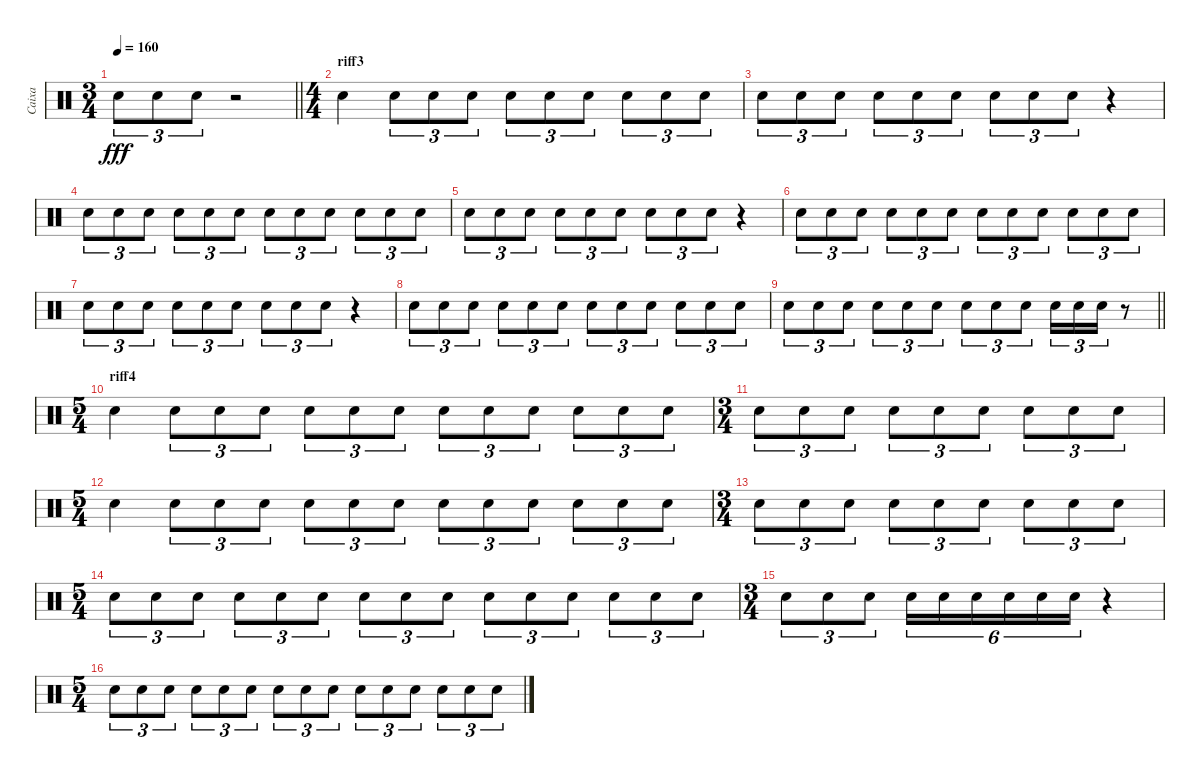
\track ("Caixa" "Caixa") {instrument percussion}
\staff {score}
\articulation defaults
\ts (3 4)
\tempo 160
\clef neutral
\barLineRight lightlight
\ks c "Electric Snare (hit)".8{tu (3 2) dy fff} "Electric Snare (hit)".8{tu (3 2)} "Electric Snare (hit)".8{tu (3 2)}
r.2 |
\ts (4 4)
\section ("" "riff3")
"Electric Snare (hit)".4 "Electric Snare (hit)".8{tu (3 2)} "Electric Snare (hit)".8{tu (3 2)} "Electric Snare (hit)".8{tu (3 2)} "Electric Snare (hit)".8{tu (3 2)} "Electric Snare (hit)".8{tu (3 2)} "Electric Snare (hit)".8{tu (3 2)} "Electric Snare (hit)".8{tu (3 2)} "Electric Snare (hit)".8{tu (3 2)} "Electric Snare (hit)".8{tu (3 2)} |
"Electric Snare (hit)".8{tu (3 2)} "Electric Snare (hit)".8{tu (3 2)} "Electric Snare (hit)".8{tu (3 2)} "Electric Snare (hit)".8{tu (3 2)} "Electric Snare (hit)".8{tu (3 2)} "Electric Snare (hit)".8{tu (3 2)} "Electric Snare (hit)".8{tu (3 2)} "Electric Snare (hit)".8{tu (3 2)} "Electric Snare (hit)".8{tu (3 2)} r.4 |
"Electric Snare (hit)".8{tu (3 2)} "Electric Snare (hit)".8{tu (3 2)} "Electric Snare (hit)".8{tu (3 2)} "Electric Snare (hit)".8{tu (3 2)} "Electric Snare (hit)".8{tu (3 2)} "Electric Snare (hit)".8{tu (3 2)} "Electric Snare (hit)".8{tu (3 2)} "Electric Snare (hit)".8{tu (3 2)} "Electric Snare (hit)".8{tu (3 2)} "Electric Snare (hit)".8{tu (3 2)} "Electric Snare (hit)".8{tu (3 2)} "Electric Snare (hit)".8{tu (3 2)} |
"Electric Snare (hit)".8{tu (3 2)} "Electric Snare (hit)".8{tu (3 2)} "Electric Snare (hit)".8{tu (3 2)} "Electric Snare (hit)".8{tu (3 2)} "Electric Snare (hit)".8{tu (3 2)} "Electric Snare (hit)".8{tu (3 2)} "Electric Snare (hit)".8{tu (3 2)} "Electric Snare (hit)".8{tu (3 2)} "Electric Snare (hit)".8{tu (3 2)} r.4 |
"Electric Snare (hit)".8{tu (3 2)} "Electric Snare (hit)".8{tu (3 2)} "Electric Snare (hit)".8{tu (3 2)} "Electric Snare (hit)".8{tu (3 2)} "Electric Snare (hit)".8{tu (3 2)} "Electric Snare (hit)".8{tu (3 2)} "Electric Snare (hit)".8{tu (3 2)} "Electric Snare (hit)".8{tu (3 2)} "Electric Snare (hit)".8{tu (3 2)} "Electric Snare (hit)".8{tu (3 2)} "Electric Snare (hit)".8{tu (3 2)} "Electric Snare (hit)".8{tu (3 2)} |
"Electric Snare (hit)".8{tu (3 2)} "Electric Snare (hit)".8{tu (3 2)} "Electric Snare (hit)".8{tu (3 2)} "Electric Snare (hit)".8{tu (3 2)} "Electric Snare (hit)".8{tu (3 2)} "Electric Snare (hit)".8{tu (3 2)} "Electric Snare (hit)".8{tu (3 2)} "Electric Snare (hit)".8{tu (3 2)} "Electric Snare (hit)".8{tu (3 2)} r.4 |
"Electric Snare (hit)".8{tu (3 2)} "Electric Snare (hit)".8{tu (3 2)} "Electric Snare (hit)".8{tu (3 2)} "Electric Snare (hit)".8{tu (3 2)} "Electric Snare (hit)".8{tu (3 2)} "Electric Snare (hit)".8{tu (3 2)} "Electric Snare (hit)".8{tu (3 2)} "Electric Snare (hit)".8{tu (3 2)} "Electric Snare (hit)".8{tu (3 2)} "Electric Snare (hit)".8{tu (3 2)} "Electric Snare (hit)".8{tu (3 2)} "Electric Snare (hit)".8{tu (3 2)} |
\barLineRight lightlight "Electric Snare (hit)".8{tu (3 2)} "Electric Snare (hit)".8{tu (3 2)} "Electric Snare (hit)".8{tu (3 2)} "Electric Snare (hit)".8{tu (3 2)} "Electric Snare (hit)".8{tu (3 2)} "Electric Snare (hit)".8{tu (3 2)} "Electric Snare (hit)".8{tu (3 2)} "Electric Snare (hit)".8{tu (3 2)} "Electric Snare (hit)".8{tu (3 2)} "Electric Snare (hit)".16{tu (3 2)} "Electric Snare (hit)".16{tu (3 2)} "Electric Snare (hit)".16{tu (3 2)}
r.8 |
\ts (5 4)
\section ("" "riff4")
"Electric Snare (hit)".4 "Electric Snare (hit)".8{tu (3 2)} "Electric Snare (hit)".8{tu (3 2)} "Electric Snare (hit)".8{tu (3 2)} "Electric Snare (hit)".8{tu (3 2)} "Electric Snare (hit)".8{tu (3 2)} "Electric Snare (hit)".8{tu (3 2)} "Electric Snare (hit)".8{tu (3 2)} "Electric Snare (hit)".8{tu (3 2)} "Electric Snare (hit)".8{tu (3 2)} "Electric Snare (hit)".8{tu (3 2)} "Electric Snare (hit)".8{tu (3 2)} "Electric Snare (hit)".8{tu (3 2)} |
\ts (3 4)
"Electric Snare (hit)".8{tu (3 2)} "Electric Snare (hit)".8{tu (3 2)} "Electric Snare (hit)".8{tu (3 2)} "Electric Snare (hit)".8{tu (3 2)} "Electric Snare (hit)".8{tu (3 2)} "Electric Snare (hit)".8{tu (3 2)} "Electric Snare (hit)".8{tu (3 2)} "Electric Snare (hit)".8{tu (3 2)} "Electric Snare (hit)".8{tu (3 2)} |
\ts (5 4)
"Electric Snare (hit)".4 "Electric Snare (hit)".8{tu (3 2)} "Electric Snare (hit)".8{tu (3 2)} "Electric Snare (hit)".8{tu (3 2)} "Electric Snare (hit)".8{tu (3 2)} "Electric Snare (hit)".8{tu (3 2)} "Electric Snare (hit)".8{tu (3 2)} "Electric Snare (hit)".8{tu (3 2)} "Electric Snare (hit)".8{tu (3 2)} "Electric Snare (hit)".8{tu (3 2)} "Electric Snare (hit)".8{tu (3 2)} "Electric Snare (hit)".8{tu (3 2)} "Electric Snare (hit)".8{tu (3 2)} |
\ts (3 4)
"Electric Snare (hit)".8{tu (3 2)} "Electric Snare (hit)".8{tu (3 2)} "Electric Snare (hit)".8{tu (3 2)} "Electric Snare (hit)".8{tu (3 2)} "Electric Snare (hit)".8{tu (3 2)} "Electric Snare (hit)".8{tu (3 2)} "Electric Snare (hit)".8{tu (3 2)} "Electric Snare (hit)".8{tu (3 2)} "Electric Snare (hit)".8{tu (3 2)} |
\ts (5 4)
"Electric Snare (hit)".8{tu (3 2)} "Electric Snare (hit)".8{tu (3 2)} "Electric Snare (hit)".8{tu (3 2)} "Electric Snare (hit)".8{tu (3 2)} "Electric Snare (hit)".8{tu (3 2)} "Electric Snare (hit)".8{tu (3 2)} "Electric Snare (hit)".8{tu (3 2)} "Electric Snare (hit)".8{tu (3 2)} "Electric Snare (hit)".8{tu (3 2)} "Electric Snare (hit)".8{tu (3 2)} "Electric Snare (hit)".8{tu (3 2)} "Electric Snare (hit)".8{tu (3 2)} "Electric Snare (hit)".8{tu (3 2)} "Electric Snare (hit)".8{tu (3 2)} "Electric Snare (hit)".8{tu (3 2)} |
\ts (3 4)
"Electric Snare (hit)".8{tu (3 2)} "Electric Snare (hit)".8{tu (3 2)} "Electric Snare (hit)".8{tu (3 2)} "Electric Snare (hit)".16{tu (6 4)} "Electric Snare (hit)".16{tu (6 4)} "Electric Snare (hit)".16{tu (6 4)} "Electric Snare (hit)".16{tu (6 4)} "Electric Snare (hit)".16{tu (6 4)} "Electric Snare (hit)".16{tu (6 4)} r.4 |
\ts (5 4)
"Electric Snare (hit)".8{tu (3 2)} "Electric Snare (hit)".8{tu (3 2)} "Electric Snare (hit)".8{tu (3 2)} "Electric Snare (hit)".8{tu (3 2)} "Electric Snare (hit)".8{tu (3 2)} "Electric Snare (hit)".8{tu (3 2)} "Electric Snare (hit)".8{tu (3 2)} "Electric Snare (hit)".8{tu (3 2)} "Electric Snare (hit)".8{tu (3 2)} "Electric Snare (hit)".8{tu (3 2)} "Electric Snare (hit)".8{tu (3 2)} "Electric Snare (hit)".8{tu (3 2)} "Electric Snare (hit)".8{tu (3 2)} "Electric Snare (hit)".8{tu (3 2)} "Electric Snare (hit)".8{tu (3 2)}
